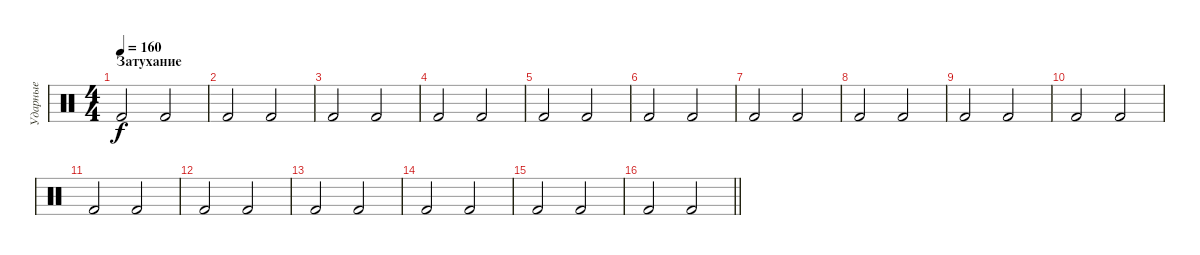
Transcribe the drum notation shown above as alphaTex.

\track ("Ударные" "Ударные") {instrument percussion}
\staff {score}
\articulation defaults
\ts (4 4)
\section ("" "Затухание")
\tempo 160
\clef neutral
\ks c "Kick (hit) 2".2{dy f} "Kick (hit) 2".2
|
"Kick (hit) 2".2 "Kick (hit) 2".2 |
"Kick (hit) 2".2 "Kick (hit) 2".2 |
"Kick (hit) 2".2 "Kick (hit) 2".2 |
"Kick (hit) 2".2 "Kick (hit) 2".2 |
"Kick (hit) 2".2 "Kick (hit) 2".2 |
"Kick (hit) 2".2 "Kick (hit) 2".2 |
"Kick (hit) 2".2 "Kick (hit) 2".2 |
"Kick (hit) 2".2 "Kick (hit) 2".2 |
"Kick (hit) 2".2 "Kick (hit) 2".2 |
"Kick (hit) 2".2 "Kick (hit) 2".2 |
"Kick (hit) 2".2 "Kick (hit) 2".2 |
"Kick (hit) 2".2 "Kick (hit) 2".2 |
"Kick (hit) 2".2 "Kick (hit) 2".2 |
"Kick (hit) 2".2 "Kick (hit) 2".2 |
\barLineRight lightlight "Kick (hit) 2".2 "Kick (hit) 2".2
